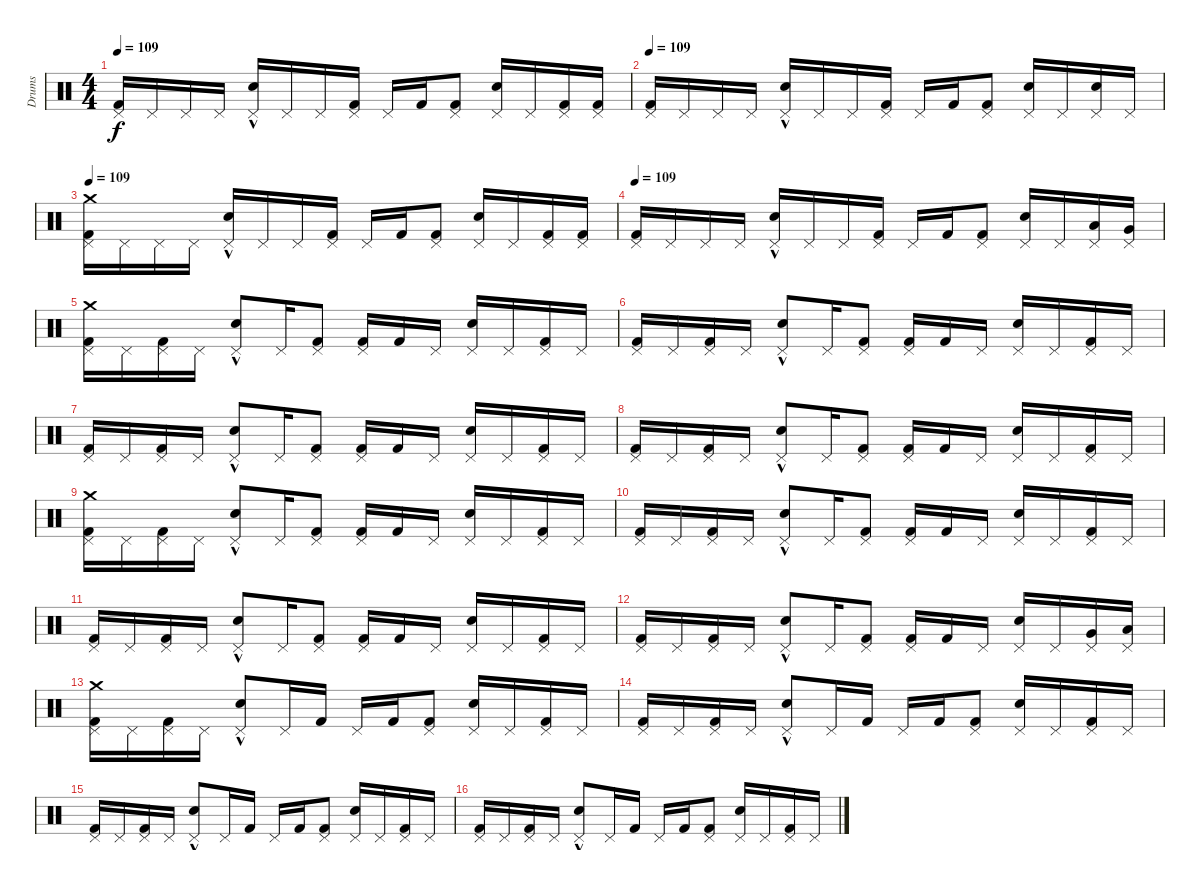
\track ("Drums" "Drums") {instrument percussion}
\staff {score}
\articulation defaults
\ts (4 4)
\tempo 109
\clef neutral
\ks c
("Pedal Hi-Hat (hit)" "Kick (hit) 2").16{dy f} "Pedal Hi-Hat (hit)".16 "Pedal Hi-Hat (hit)".16 "Pedal Hi-Hat (hit)".16 ("Pedal Hi-Hat (hit)" "Snare (hit) 2"{hac}).16 "Pedal Hi-Hat (hit)".16 "Pedal Hi-Hat (hit)".16 ("Pedal Hi-Hat (hit)" "Kick (hit) 2").16 "Pedal Hi-Hat (hit)".16 "Kick (hit) 2".16 ("Pedal Hi-Hat (hit)" "Kick (hit) 2").8 ("Pedal Hi-Hat (hit)" "Snare (hit) 2").16 "Pedal Hi-Hat (hit)".16 ("Pedal Hi-Hat (hit)" "Kick (hit) 2").16 ("Pedal Hi-Hat (hit)" "Kick (hit) 2").16 |
\tempo 109
("Kick (hit) 2" "Pedal Hi-Hat (hit)").16 "Pedal Hi-Hat (hit)".16 "Pedal Hi-Hat (hit)".16 "Pedal Hi-Hat (hit)".16 ("Snare (hit) 2"{hac} "Pedal Hi-Hat (hit)").16 "Pedal Hi-Hat (hit)".16 "Pedal Hi-Hat (hit)".16 ("Kick (hit) 2" "Pedal Hi-Hat (hit)").16 "Pedal Hi-Hat (hit)".16 "Kick (hit) 2".16 ("Kick (hit) 2" "Pedal Hi-Hat (hit)").8 ("Snare (hit) 2" "Pedal Hi-Hat (hit)").16 "Pedal Hi-Hat (hit)".16 ("Snare (hit) 2" "Pedal Hi-Hat (hit)").16 "Pedal Hi-Hat (hit)".16 |
\tempo 109
("Crash medium (hit)" "Pedal Hi-Hat (hit)" "Kick (hit) 2").16 "Pedal Hi-Hat (hit)".16 "Pedal Hi-Hat (hit)".16 "Pedal Hi-Hat (hit)".16 ("Pedal Hi-Hat (hit)" "Snare (hit) 2"{hac}).16 "Pedal Hi-Hat (hit)".16 "Pedal Hi-Hat (hit)".16 ("Pedal Hi-Hat (hit)" "Kick (hit) 2").16 "Pedal Hi-Hat (hit)".16 "Kick (hit) 2".16 ("Pedal Hi-Hat (hit)" "Kick (hit) 2").8 ("Pedal Hi-Hat (hit)" "Snare (hit) 2").16 "Pedal Hi-Hat (hit)".16 ("Pedal Hi-Hat (hit)" "Kick (hit) 2").16 ("Pedal Hi-Hat (hit)" "Kick (hit) 2").16 |
\tempo 109
("Pedal Hi-Hat (hit)" "Kick (hit) 2").16 "Pedal Hi-Hat (hit)".16 "Pedal Hi-Hat (hit)".16 "Pedal Hi-Hat (hit)".16 ("Pedal Hi-Hat (hit)" "Snare (hit) 2"{hac}).16 "Pedal Hi-Hat (hit)".16 "Pedal Hi-Hat (hit)".16 ("Pedal Hi-Hat (hit)" "Kick (hit) 2").16 "Pedal Hi-Hat (hit)".16 "Kick (hit) 2".16 ("Pedal Hi-Hat (hit)" "Kick (hit) 2").8 ("Pedal Hi-Hat (hit)" "Snare (hit) 2").16 "Pedal Hi-Hat (hit)".16 ("Low Tom (hit)" "Pedal Hi-Hat (hit)").16 ("Very Low Tom (hit)" "Pedal Hi-Hat (hit)").16 |
("Pedal Hi-Hat (hit)" "Crash medium (hit)" "Kick (hit) 2").16 "Pedal Hi-Hat (hit)".16 ("Pedal Hi-Hat (hit)" "Kick (hit) 2").16 "Pedal Hi-Hat (hit)".16 ("Pedal Hi-Hat (hit)" "Snare (hit) 2"{hac}).8 "Pedal Hi-Hat (hit)".16 ("Pedal Hi-Hat (hit)" "Kick (hit) 2").8 ("Pedal Hi-Hat (hit)" "Kick (hit) 2").16 "Kick (hit) 2".16 "Pedal Hi-Hat (hit)".16 ("Pedal Hi-Hat (hit)" "Snare (hit) 2").16 "Pedal Hi-Hat (hit)".16 ("Pedal Hi-Hat (hit)" "Kick (hit) 2").16 "Pedal Hi-Hat (hit)".16 |
("Kick (hit) 2" "Pedal Hi-Hat (hit)").16 "Pedal Hi-Hat (hit)".16 ("Kick (hit) 2" "Pedal Hi-Hat (hit)").16 "Pedal Hi-Hat (hit)".16 ("Snare (hit) 2"{hac} "Pedal Hi-Hat (hit)").8 "Pedal Hi-Hat (hit)".16 ("Kick (hit) 2" "Pedal Hi-Hat (hit)").8 ("Kick (hit) 2" "Pedal Hi-Hat (hit)").16 "Kick (hit) 2".16 "Pedal Hi-Hat (hit)".16 ("Snare (hit) 2" "Pedal Hi-Hat (hit)").16 "Pedal Hi-Hat (hit)".16 ("Kick (hit) 2" "Pedal Hi-Hat (hit)").16 "Pedal Hi-Hat (hit)".16 |
("Kick (hit) 2" "Pedal Hi-Hat (hit)").16 "Pedal Hi-Hat (hit)".16 ("Kick (hit) 2" "Pedal Hi-Hat (hit)").16 "Pedal Hi-Hat (hit)".16 ("Snare (hit) 2"{hac} "Pedal Hi-Hat (hit)").8 "Pedal Hi-Hat (hit)".16 ("Kick (hit) 2" "Pedal Hi-Hat (hit)").8 ("Kick (hit) 2" "Pedal Hi-Hat (hit)").16 "Kick (hit) 2".16 "Pedal Hi-Hat (hit)".16 ("Snare (hit) 2" "Pedal Hi-Hat (hit)").16 "Pedal Hi-Hat (hit)".16 ("Kick (hit) 2" "Pedal Hi-Hat (hit)").16 "Pedal Hi-Hat (hit)".16 |
("Pedal Hi-Hat (hit)" "Kick (hit) 2").16 "Pedal Hi-Hat (hit)".16 ("Pedal Hi-Hat (hit)" "Kick (hit) 2").16 "Pedal Hi-Hat (hit)".16 ("Pedal Hi-Hat (hit)" "Snare (hit) 2"{hac}).8 "Pedal Hi-Hat (hit)".16 ("Pedal Hi-Hat (hit)" "Kick (hit) 2").8 ("Pedal Hi-Hat (hit)" "Kick (hit) 2").16 "Kick (hit) 2".16 "Pedal Hi-Hat (hit)".16 ("Pedal Hi-Hat (hit)" "Snare (hit) 2").16 "Pedal Hi-Hat (hit)".16 ("Pedal Hi-Hat (hit)" "Kick (hit) 2").16 "Pedal Hi-Hat (hit)".16 |
("Crash medium (hit)" "Kick (hit) 2" "Pedal Hi-Hat (hit)").16 "Pedal Hi-Hat (hit)".16 ("Kick (hit) 2" "Pedal Hi-Hat (hit)").16 "Pedal Hi-Hat (hit)".16 ("Snare (hit) 2"{hac} "Pedal Hi-Hat (hit)").8 "Pedal Hi-Hat (hit)".16 ("Kick (hit) 2" "Pedal Hi-Hat (hit)").8 ("Kick (hit) 2" "Pedal Hi-Hat (hit)").16 "Kick (hit) 2".16 "Pedal Hi-Hat (hit)".16 ("Snare (hit) 2" "Pedal Hi-Hat (hit)").16 "Pedal Hi-Hat (hit)".16 ("Kick (hit) 2" "Pedal Hi-Hat (hit)").16 "Pedal Hi-Hat (hit)".16 |
("Pedal Hi-Hat (hit)" "Kick (hit) 2").16 "Pedal Hi-Hat (hit)".16 ("Pedal Hi-Hat (hit)" "Kick (hit) 2").16 "Pedal Hi-Hat (hit)".16 ("Pedal Hi-Hat (hit)" "Snare (hit) 2"{hac}).8 "Pedal Hi-Hat (hit)".16 ("Pedal Hi-Hat (hit)" "Kick (hit) 2").8 ("Pedal Hi-Hat (hit)" "Kick (hit) 2").16 "Kick (hit) 2".16 "Pedal Hi-Hat (hit)".16 ("Pedal Hi-Hat (hit)" "Snare (hit) 2").16 "Pedal Hi-Hat (hit)".16 ("Pedal Hi-Hat (hit)" "Kick (hit) 2").16 "Pedal Hi-Hat (hit)".16 |
("Kick (hit) 2" "Pedal Hi-Hat (hit)").16 "Pedal Hi-Hat (hit)".16 ("Kick (hit) 2" "Pedal Hi-Hat (hit)").16 "Pedal Hi-Hat (hit)".16 ("Snare (hit) 2"{hac} "Pedal Hi-Hat (hit)").8 "Pedal Hi-Hat (hit)".16 ("Kick (hit) 2" "Pedal Hi-Hat (hit)").8 ("Kick (hit) 2" "Pedal Hi-Hat (hit)").16 "Kick (hit) 2".16 "Pedal Hi-Hat (hit)".16 ("Snare (hit) 2" "Pedal Hi-Hat (hit)").16 "Pedal Hi-Hat (hit)".16 ("Kick (hit) 2" "Pedal Hi-Hat (hit)").16 "Pedal Hi-Hat (hit)".16 |
("Pedal Hi-Hat (hit)" "Kick (hit) 2").16 "Pedal Hi-Hat (hit)".16 ("Pedal Hi-Hat (hit)" "Kick (hit) 2").16 "Pedal Hi-Hat (hit)".16 ("Pedal Hi-Hat (hit)" "Snare (hit) 2"{hac}).8 "Pedal Hi-Hat (hit)".16 ("Pedal Hi-Hat (hit)" "Kick (hit) 2").8 ("Pedal Hi-Hat (hit)" "Kick (hit) 2").16 "Kick (hit) 2".16 "Pedal Hi-Hat (hit)".16 ("Pedal Hi-Hat (hit)" "Snare (hit) 2").16 "Pedal Hi-Hat (hit)".16 ("Pedal Hi-Hat (hit)" "Very Low Tom (hit)").16 ("Pedal Hi-Hat (hit)" "Low Floor Tom (hit)").16 |
("Crash medium (hit)" "Kick (hit) 2" "Pedal Hi-Hat (hit)").16 "Pedal Hi-Hat (hit)".16 ("Kick (hit) 2" "Pedal Hi-Hat (hit)").16 "Pedal Hi-Hat (hit)".16 ("Snare (hit) 2"{hac} "Pedal Hi-Hat (hit)").8 "Pedal Hi-Hat (hit)".16 "Kick (hit) 2".16 "Pedal Hi-Hat (hit)".16 "Kick (hit) 2".16 ("Kick (hit) 2" "Pedal Hi-Hat (hit)").8 ("Snare (hit) 2" "Pedal Hi-Hat (hit)").16 "Pedal Hi-Hat (hit)".16 ("Kick (hit) 2" "Pedal Hi-Hat (hit)").16 "Pedal Hi-Hat (hit)".16 |
("Kick (hit) 2" "Pedal Hi-Hat (hit)").16 "Pedal Hi-Hat (hit)".16 ("Kick (hit) 2" "Pedal Hi-Hat (hit)").16 "Pedal Hi-Hat (hit)".16 ("Snare (hit) 2"{hac} "Pedal Hi-Hat (hit)").8 "Pedal Hi-Hat (hit)".16 "Kick (hit) 2".16 "Pedal Hi-Hat (hit)".16 "Kick (hit) 2".16 ("Kick (hit) 2" "Pedal Hi-Hat (hit)").8 ("Snare (hit) 2" "Pedal Hi-Hat (hit)").16 "Pedal Hi-Hat (hit)".16 ("Kick (hit) 2" "Pedal Hi-Hat (hit)").16 "Pedal Hi-Hat (hit)".16 |
("Kick (hit) 2" "Pedal Hi-Hat (hit)").16 "Pedal Hi-Hat (hit)".16 ("Kick (hit) 2" "Pedal Hi-Hat (hit)").16 "Pedal Hi-Hat (hit)".16 ("Snare (hit) 2"{hac} "Pedal Hi-Hat (hit)").8 "Pedal Hi-Hat (hit)".16 "Kick (hit) 2".16 "Pedal Hi-Hat (hit)".16 "Kick (hit) 2".16 ("Kick (hit) 2" "Pedal Hi-Hat (hit)").8 ("Snare (hit) 2" "Pedal Hi-Hat (hit)").16 "Pedal Hi-Hat (hit)".16 ("Kick (hit) 2" "Pedal Hi-Hat (hit)").16 "Pedal Hi-Hat (hit)".16 |
("Kick (hit) 2" "Pedal Hi-Hat (hit)").16 "Pedal Hi-Hat (hit)".16 ("Kick (hit) 2" "Pedal Hi-Hat (hit)").16 "Pedal Hi-Hat (hit)".16 ("Snare (hit) 2"{hac} "Pedal Hi-Hat (hit)").8 "Pedal Hi-Hat (hit)".16 "Kick (hit) 2".16 "Pedal Hi-Hat (hit)".16 "Kick (hit) 2".16 ("Kick (hit) 2" "Pedal Hi-Hat (hit)").8 ("Snare (hit) 2" "Pedal Hi-Hat (hit)").16 "Pedal Hi-Hat (hit)".16 ("Kick (hit) 2" "Pedal Hi-Hat (hit)").16 "Pedal Hi-Hat (hit)".16
